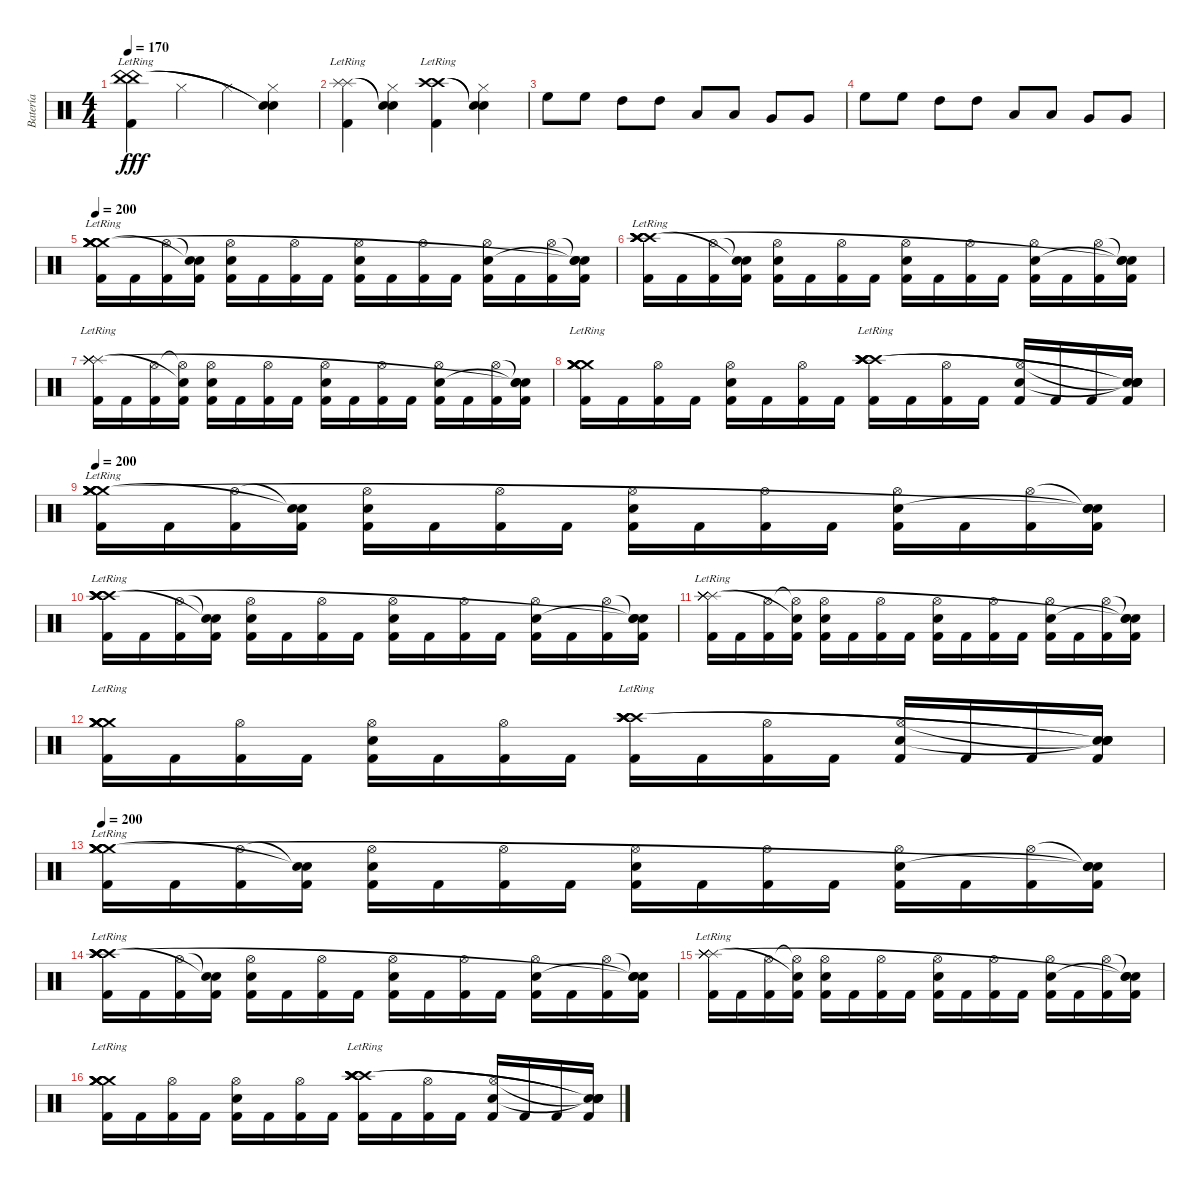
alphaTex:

\track ("Batería" "Batería") {instrument percussion}
\staff {score}
\articulation defaults
\ts (4 4)
\tempo 170
\clef neutral
\ks c
("Kick (hit) 2"{lr} "China (hit)"{lr} "China (hit)"{lr}).4{dy fff} "Hi-Hat (closed)".4 "Hi-Hat (closed)".4 ("Hi-Hat (closed)" "Snare (hit)"{t} "Snare (hit)"{t}).4 |
("Kick (hit) 2" "Splash (hit)"{lr} "Splash (hit)"{lr}).4 ("Hi-Hat (closed)" "Snare (hit)"{t} "Snare (hit)"{t}).4 ("Kick (hit) 2" "Crash high (hit)"{lr} "Crash high (hit)"{lr}).4 ("Hi-Hat (closed)" "Snare (hit)"{t} "Snare (hit)"{t}).4 |
"High Floor Tom (hit)".8 "High Floor Tom (hit)".8 "High Tom (hit)".8 "High Tom (hit)".8 "Low Tom (hit)".8 "Low Tom (hit)".8 "Very Low Tom (hit)".8 "Very Low Tom (hit)".8 |
"High Floor Tom (hit)".8 "High Floor Tom (hit)".8 "High Tom (hit)".8 "High Tom (hit)".8 "Low Tom (hit)".8 "Low Tom (hit)".8 "Very Low Tom (hit)".8 "Very Low Tom (hit)".8 |
\tempo 200
("Kick (hit) 2" "Crash medium (hit)"{lr} "Crash medium (hit)"{lr} "Crash medium (hit)"{lr} "Crash medium (hit)"{lr} "Crash medium (hit)"{lr}).16 "Kick (hit) 2".16 ("Kick (hit) 2" "Hi-Hat (open)").16 ("Kick (hit) 2" "Snare (hit)"{t} "Snare (hit)"{t}).16 ("Kick (hit) 2" "Hi-Hat (open)" "Electric Snare (hit)").16 "Kick (hit) 2".16 ("Kick (hit) 2" "Hi-Hat (open)").16 "Kick (hit) 2".16 ("Kick (hit) 2" "Hi-Hat (open)" "Electric Snare (hit)").16 "Kick (hit) 2".16 ("Kick (hit) 2" "Hi-Hat (open)").16 "Kick (hit) 2".16 ("Kick (hit) 2" "Hi-Hat (open)" "Electric Snare (hit)").16 "Kick (hit) 2".16 ("Kick (hit) 2" "Hi-Hat (open)").16 ("Kick (hit) 2" "Snare (hit)"{t} "Snare (hit)"{t} "Snare (hit)"{t}).16 |
("Kick (hit) 2" "Crash high (hit)"{lr} "Crash high (hit)"{lr} "Crash high (hit)"{lr} "Crash high (hit)"{lr} "Crash high (hit)"{lr}).16 "Kick (hit) 2".16 ("Kick (hit) 2" "Hi-Hat (open)").16 ("Kick (hit) 2" "Snare (hit)"{t} "Snare (hit)"{t}).16 ("Kick (hit) 2" "Hi-Hat (open)" "Electric Snare (hit)").16 "Kick (hit) 2".16 ("Kick (hit) 2" "Hi-Hat (open)").16 "Kick (hit) 2".16 ("Kick (hit) 2" "Hi-Hat (open)" "Electric Snare (hit)").16 "Kick (hit) 2".16 ("Kick (hit) 2" "Hi-Hat (open)").16 "Kick (hit) 2".16 ("Kick (hit) 2" "Hi-Hat (open)" "Electric Snare (hit)").16 "Kick (hit) 2".16 ("Kick (hit) 2" "Hi-Hat (open)").16 ("Kick (hit) 2" "Snare (hit)"{t} "Snare (hit)"{t} "Snare (hit)"{t}).16 |
("Kick (hit) 2"{lr} "Splash (hit)"{lr} "Splash (hit)"{lr} "Splash (hit)"{lr} "Splash (hit)"{lr} "Splash (hit)"{lr}).16 "Kick (hit) 2".16 ("Kick (hit) 2" "Hi-Hat (open)").16 ("Kick (hit) 2" "Hi-Hat (open)"{t} "Snare (hit)"{t}).16 ("Kick (hit) 2" "Hi-Hat (open)" "Electric Snare (hit)").16 "Kick (hit) 2".16 ("Kick (hit) 2" "Hi-Hat (open)").16 "Kick (hit) 2".16 ("Kick (hit) 2" "Hi-Hat (open)" "Electric Snare (hit)").16 "Kick (hit) 2".16 ("Kick (hit) 2" "Hi-Hat (open)").16 "Kick (hit) 2".16 ("Kick (hit) 2" "Hi-Hat (open)" "Electric Snare (hit)").16 "Kick (hit) 2".16 ("Kick (hit) 2" "Hi-Hat (open)").16 ("Kick (hit) 2" "Snare (hit)"{t} "Snare (hit)"{t} "Snare (hit)"{t}).16 |
("Kick (hit) 2" "Crash medium (hit)"{lr} "Crash medium (hit)"{lr} "Crash medium (hit)"{lr} "Crash medium (hit)"{lr} "Crash medium (hit)"{lr}).16 "Kick (hit) 2".16 ("Kick (hit) 2" "Hi-Hat (open)").16 "Kick (hit) 2".16 ("Kick (hit) 2" "Hi-Hat (open)" "Electric Snare (hit)").16 "Kick (hit) 2".16 ("Kick (hit) 2" "Hi-Hat (open)").16 "Kick (hit) 2".16 ("Kick (hit) 2"{lr} "Crash high (hit)"{lr} "Crash high (hit)"{lr} "Crash high (hit)"{lr} "Crash high (hit)"{lr} "Crash high (hit)"{lr}).16 "Kick (hit) 2".16 ("Kick (hit) 2" "Hi-Hat (open)").16 "Kick (hit) 2".16 ("Kick (hit) 2" "Hi-Hat (open)" "Electric Snare (hit)").16 "Kick (hit) 2".16 "Kick (hit) 2".16 ("Kick (hit) 2" "Snare (hit)"{t} "Snare (hit)"{t} "Snare (hit)"{t} "Snare (hit)"{t}).16 |
\tempo 200
("Kick (hit) 2" "Crash medium (hit)"{lr} "Crash medium (hit)"{lr} "Crash medium (hit)"{lr} "Crash medium (hit)"{lr} "Crash medium (hit)"{lr}).16 "Kick (hit) 2".16 ("Kick (hit) 2" "Hi-Hat (open)").16 ("Kick (hit) 2" "Snare (hit)"{t} "Snare (hit)"{t}).16 ("Kick (hit) 2" "Hi-Hat (open)" "Electric Snare (hit)").16 "Kick (hit) 2".16 ("Kick (hit) 2" "Hi-Hat (open)").16 "Kick (hit) 2".16 ("Kick (hit) 2" "Hi-Hat (open)" "Electric Snare (hit)").16 "Kick (hit) 2".16 ("Kick (hit) 2" "Hi-Hat (open)").16 "Kick (hit) 2".16 ("Kick (hit) 2" "Hi-Hat (open)" "Electric Snare (hit)").16 "Kick (hit) 2".16 ("Kick (hit) 2" "Hi-Hat (open)").16 ("Kick (hit) 2" "Snare (hit)"{t} "Snare (hit)"{t} "Snare (hit)"{t}).16 |
("Kick (hit) 2" "Crash high (hit)"{lr} "Crash high (hit)"{lr} "Crash high (hit)"{lr} "Crash high (hit)"{lr} "Crash high (hit)"{lr}).16 "Kick (hit) 2".16 ("Kick (hit) 2" "Hi-Hat (open)").16 ("Kick (hit) 2" "Snare (hit)"{t} "Snare (hit)"{t}).16 ("Kick (hit) 2" "Hi-Hat (open)" "Electric Snare (hit)").16 "Kick (hit) 2".16 ("Kick (hit) 2" "Hi-Hat (open)").16 "Kick (hit) 2".16 ("Kick (hit) 2" "Hi-Hat (open)" "Electric Snare (hit)").16 "Kick (hit) 2".16 ("Kick (hit) 2" "Hi-Hat (open)").16 "Kick (hit) 2".16 ("Kick (hit) 2" "Hi-Hat (open)" "Electric Snare (hit)").16 "Kick (hit) 2".16 ("Kick (hit) 2" "Hi-Hat (open)").16 ("Kick (hit) 2" "Snare (hit)"{t} "Snare (hit)"{t} "Snare (hit)"{t}).16 |
("Kick (hit) 2"{lr} "Splash (hit)"{lr} "Splash (hit)"{lr} "Splash (hit)"{lr} "Splash (hit)"{lr} "Splash (hit)"{lr}).16 "Kick (hit) 2".16 ("Kick (hit) 2" "Hi-Hat (open)").16 ("Kick (hit) 2" "Hi-Hat (open)"{t} "Snare (hit)"{t}).16 ("Kick (hit) 2" "Hi-Hat (open)" "Electric Snare (hit)").16 "Kick (hit) 2".16 ("Kick (hit) 2" "Hi-Hat (open)").16 "Kick (hit) 2".16 ("Kick (hit) 2" "Hi-Hat (open)" "Electric Snare (hit)").16 "Kick (hit) 2".16 ("Kick (hit) 2" "Hi-Hat (open)").16 "Kick (hit) 2".16 ("Kick (hit) 2" "Hi-Hat (open)" "Electric Snare (hit)").16 "Kick (hit) 2".16 ("Kick (hit) 2" "Hi-Hat (open)").16 ("Kick (hit) 2" "Snare (hit)"{t} "Snare (hit)"{t} "Snare (hit)"{t}).16 |
("Kick (hit) 2" "Crash medium (hit)"{lr} "Crash medium (hit)"{lr} "Crash medium (hit)"{lr} "Crash medium (hit)"{lr} "Crash medium (hit)"{lr}).16 "Kick (hit) 2".16 ("Kick (hit) 2" "Hi-Hat (open)").16 "Kick (hit) 2".16 ("Kick (hit) 2" "Hi-Hat (open)" "Electric Snare (hit)").16 "Kick (hit) 2".16 ("Kick (hit) 2" "Hi-Hat (open)").16 "Kick (hit) 2".16 ("Kick (hit) 2"{lr} "Crash high (hit)"{lr} "Crash high (hit)"{lr} "Crash high (hit)"{lr} "Crash high (hit)"{lr} "Crash high (hit)"{lr}).16 "Kick (hit) 2".16 ("Kick (hit) 2" "Hi-Hat (open)").16 "Kick (hit) 2".16 ("Kick (hit) 2" "Hi-Hat (open)" "Electric Snare (hit)").16 "Kick (hit) 2".16 "Kick (hit) 2".16 ("Kick (hit) 2" "Snare (hit)"{t} "Snare (hit)"{t} "Snare (hit)"{t} "Snare (hit)"{t}).16 |
\tempo 200
("Kick (hit) 2" "Crash medium (hit)"{lr} "Crash medium (hit)"{lr} "Crash medium (hit)"{lr} "Crash medium (hit)"{lr} "Crash medium (hit)"{lr}).16 "Kick (hit) 2".16 ("Kick (hit) 2" "Hi-Hat (open)").16 ("Kick (hit) 2" "Snare (hit)"{t} "Snare (hit)"{t}).16 ("Kick (hit) 2" "Hi-Hat (open)" "Electric Snare (hit)").16 "Kick (hit) 2".16 ("Kick (hit) 2" "Hi-Hat (open)").16 "Kick (hit) 2".16 ("Kick (hit) 2" "Hi-Hat (open)" "Electric Snare (hit)").16 "Kick (hit) 2".16 ("Kick (hit) 2" "Hi-Hat (open)").16 "Kick (hit) 2".16 ("Kick (hit) 2" "Hi-Hat (open)" "Electric Snare (hit)").16 "Kick (hit) 2".16 ("Kick (hit) 2" "Hi-Hat (open)").16 ("Kick (hit) 2" "Snare (hit)"{t} "Snare (hit)"{t} "Snare (hit)"{t}).16 |
("Kick (hit) 2" "Crash high (hit)"{lr} "Crash high (hit)"{lr} "Crash high (hit)"{lr} "Crash high (hit)"{lr} "Crash high (hit)"{lr}).16 "Kick (hit) 2".16 ("Kick (hit) 2" "Hi-Hat (open)").16 ("Kick (hit) 2" "Snare (hit)"{t} "Snare (hit)"{t}).16 ("Kick (hit) 2" "Hi-Hat (open)" "Electric Snare (hit)").16 "Kick (hit) 2".16 ("Kick (hit) 2" "Hi-Hat (open)").16 "Kick (hit) 2".16 ("Kick (hit) 2" "Hi-Hat (open)" "Electric Snare (hit)").16 "Kick (hit) 2".16 ("Kick (hit) 2" "Hi-Hat (open)").16 "Kick (hit) 2".16 ("Kick (hit) 2" "Hi-Hat (open)" "Electric Snare (hit)").16 "Kick (hit) 2".16 ("Kick (hit) 2" "Hi-Hat (open)").16 ("Kick (hit) 2" "Snare (hit)"{t} "Snare (hit)"{t} "Snare (hit)"{t}).16 |
("Kick (hit) 2"{lr} "Splash (hit)"{lr} "Splash (hit)"{lr} "Splash (hit)"{lr} "Splash (hit)"{lr} "Splash (hit)"{lr}).16 "Kick (hit) 2".16 ("Kick (hit) 2" "Hi-Hat (open)").16 ("Kick (hit) 2" "Hi-Hat (open)"{t} "Snare (hit)"{t}).16 ("Kick (hit) 2" "Hi-Hat (open)" "Electric Snare (hit)").16 "Kick (hit) 2".16 ("Kick (hit) 2" "Hi-Hat (open)").16 "Kick (hit) 2".16 ("Kick (hit) 2" "Hi-Hat (open)" "Electric Snare (hit)").16 "Kick (hit) 2".16 ("Kick (hit) 2" "Hi-Hat (open)").16 "Kick (hit) 2".16 ("Kick (hit) 2" "Hi-Hat (open)" "Electric Snare (hit)").16 "Kick (hit) 2".16 ("Kick (hit) 2" "Hi-Hat (open)").16 ("Kick (hit) 2" "Snare (hit)"{t} "Snare (hit)"{t} "Snare (hit)"{t}).16 |
("Kick (hit) 2" "Crash medium (hit)"{lr} "Crash medium (hit)"{lr} "Crash medium (hit)"{lr} "Crash medium (hit)"{lr} "Crash medium (hit)"{lr}).16 "Kick (hit) 2".16 ("Kick (hit) 2" "Hi-Hat (open)").16 "Kick (hit) 2".16 ("Kick (hit) 2" "Hi-Hat (open)" "Electric Snare (hit)").16 "Kick (hit) 2".16 ("Kick (hit) 2" "Hi-Hat (open)").16 "Kick (hit) 2".16 ("Kick (hit) 2"{lr} "Crash high (hit)"{lr} "Crash high (hit)"{lr} "Crash high (hit)"{lr} "Crash high (hit)"{lr} "Crash high (hit)"{lr}).16 "Kick (hit) 2".16 ("Kick (hit) 2" "Hi-Hat (open)").16 "Kick (hit) 2".16 ("Kick (hit) 2" "Hi-Hat (open)" "Electric Snare (hit)").16 "Kick (hit) 2".16 "Kick (hit) 2".16 ("Kick (hit) 2" "Snare (hit)"{t} "Snare (hit)"{t} "Snare (hit)"{t} "Snare (hit)"{t}).16
